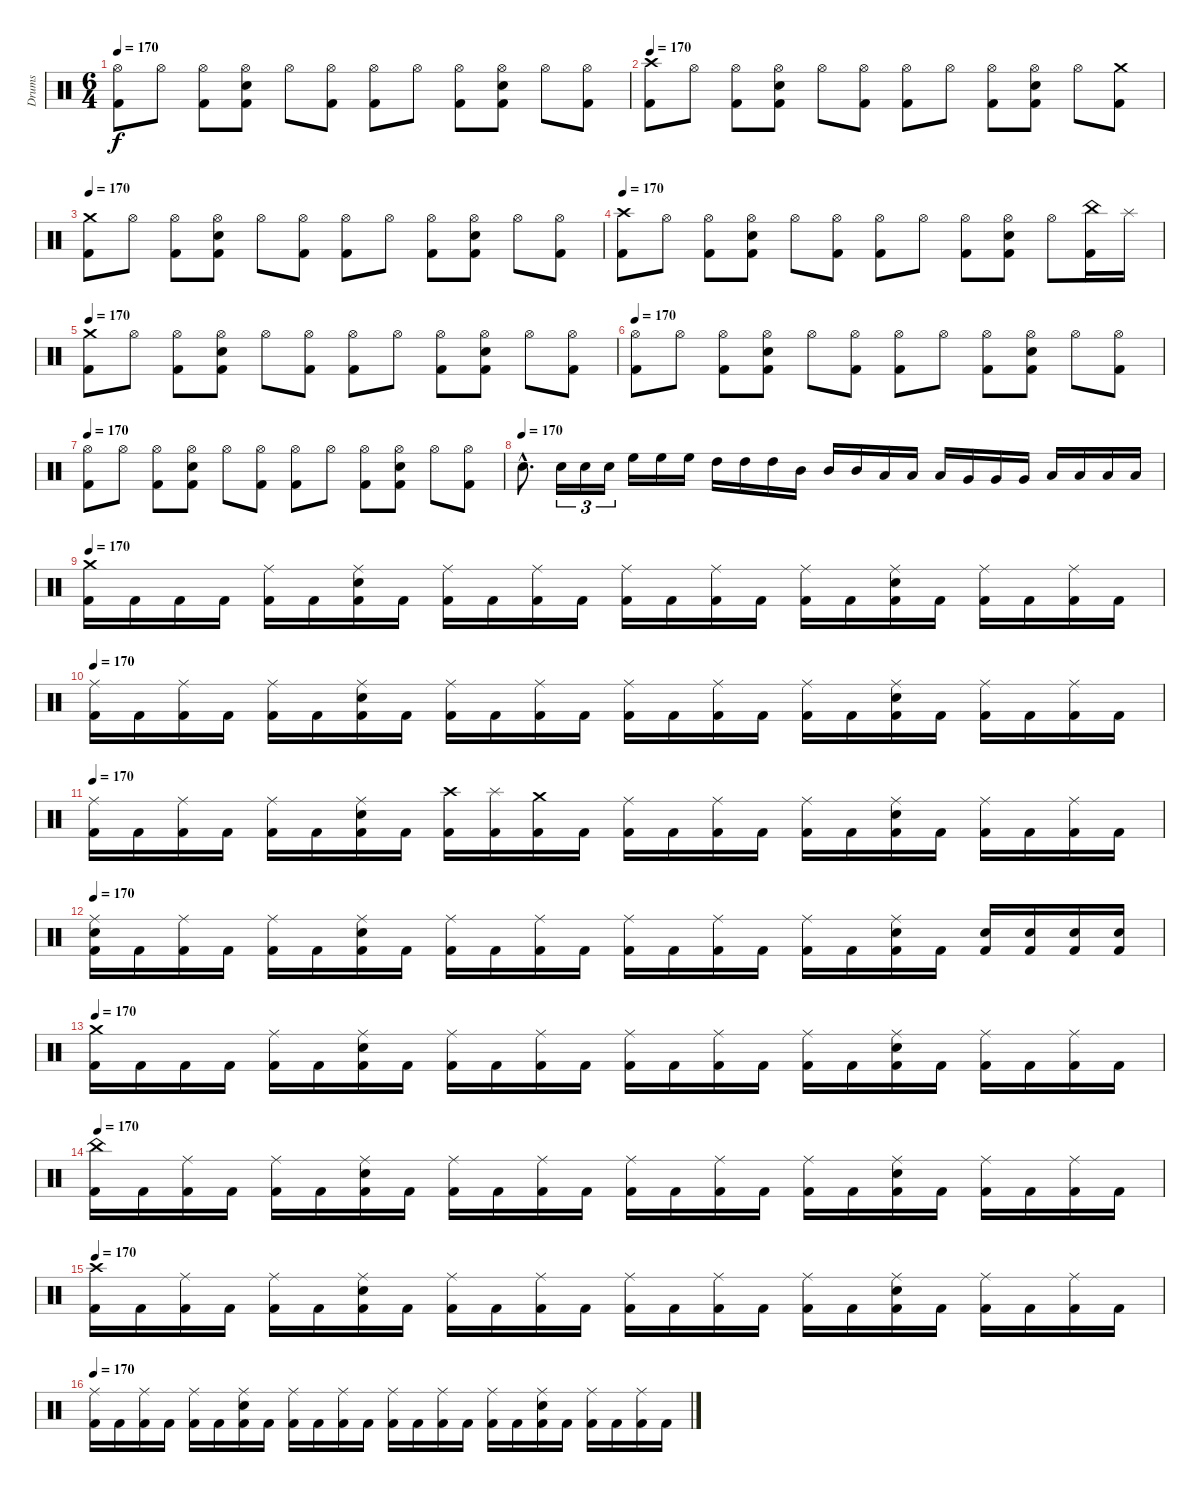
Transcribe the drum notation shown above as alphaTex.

\track ("Drums" "Drums") {instrument percussion}
\staff {score}
\articulation defaults
\ts (6 4)
\tempo 170
\clef neutral
\ks c
("Hi-Hat (open)" "Kick (hit) 2").8{dy f} "Hi-Hat (open)".8 ("Hi-Hat (open)" "Kick (hit) 2").8 ("Hi-Hat (open)" "Snare (hit) 2" "Kick (hit) 2").8 "Hi-Hat (open)".8 ("Hi-Hat (open)" "Kick (hit) 2").8 ("Hi-Hat (open)" "Kick (hit) 2").8 "Hi-Hat (open)".8 ("Hi-Hat (open)" "Kick (hit) 2").8 ("Hi-Hat (open)" "Snare (hit) 2" "Kick (hit) 2").8 "Hi-Hat (open)".8 ("Hi-Hat (open)" "Kick (hit) 2").8 |
\tempo 170
("Crash high (hit)" "Kick (hit) 2").8 "Hi-Hat (open)".8 ("Hi-Hat (open)" "Kick (hit) 2").8 ("Hi-Hat (open)" "Snare (hit) 2" "Kick (hit) 2").8 "Hi-Hat (open)".8 ("Hi-Hat (open)" "Kick (hit) 2").8 ("Hi-Hat (open)" "Kick (hit) 2").8 "Hi-Hat (open)".8 ("Hi-Hat (open)" "Kick (hit) 2").8 ("Hi-Hat (open)" "Snare (hit) 2" "Kick (hit) 2").8 "Hi-Hat (open)".8 ("Crash medium (hit)" "Kick (hit) 2").8 |
\tempo 170
("Crash medium (hit)" "Kick (hit) 2").8 "Hi-Hat (open)".8 ("Hi-Hat (open)" "Kick (hit) 2").8 ("Hi-Hat (open)" "Snare (hit) 2" "Kick (hit) 2").8 "Hi-Hat (open)".8 ("Hi-Hat (open)" "Kick (hit) 2").8 ("Hi-Hat (open)" "Kick (hit) 2").8 "Hi-Hat (open)".8 ("Hi-Hat (open)" "Kick (hit) 2").8 ("Hi-Hat (open)" "Snare (hit) 2" "Kick (hit) 2").8 "Hi-Hat (open)".8 ("Hi-Hat (open)" "Kick (hit) 2").8 |
\tempo 170
("Crash high (hit)" "Kick (hit) 2").8 "Hi-Hat (open)".8 ("Hi-Hat (open)" "Kick (hit) 2").8 ("Hi-Hat (open)" "Snare (hit) 2" "Kick (hit) 2").8 "Hi-Hat (open)".8 ("Hi-Hat (open)" "Kick (hit) 2").8 ("Hi-Hat (open)" "Kick (hit) 2").8 "Hi-Hat (open)".8 ("Hi-Hat (open)" "Kick (hit) 2").8 ("Hi-Hat (open)" "Snare (hit) 2" "Kick (hit) 2").8 "Hi-Hat (open)".8 ("China (hit)" "Kick (hit) 2").16 "Splash (hit)".16 |
\tempo 170
("Crash medium (hit)" "Kick (hit) 2").8 "Hi-Hat (open)".8 ("Hi-Hat (open)" "Kick (hit) 2").8 ("Hi-Hat (open)" "Snare (hit) 2" "Kick (hit) 2").8 "Hi-Hat (open)".8 ("Hi-Hat (open)" "Kick (hit) 2").8 ("Hi-Hat (open)" "Kick (hit) 2").8 "Hi-Hat (open)".8 ("Hi-Hat (open)" "Kick (hit) 2").8 ("Hi-Hat (open)" "Snare (hit) 2" "Kick (hit) 2").8 "Hi-Hat (open)".8 ("Hi-Hat (open)" "Kick (hit) 2").8 |
\tempo 170
("Hi-Hat (open)" "Kick (hit) 2").8 "Hi-Hat (open)".8 ("Hi-Hat (open)" "Kick (hit) 2").8 ("Hi-Hat (open)" "Snare (hit) 2" "Kick (hit) 2").8 "Hi-Hat (open)".8 ("Hi-Hat (open)" "Kick (hit) 2").8 ("Hi-Hat (open)" "Kick (hit) 2").8 "Hi-Hat (open)".8 ("Hi-Hat (open)" "Kick (hit) 2").8 ("Hi-Hat (open)" "Snare (hit) 2" "Kick (hit) 2").8 "Hi-Hat (open)".8 ("Hi-Hat (open)" "Kick (hit) 2").8 |
\tempo 170
("Hi-Hat (open)" "Kick (hit) 2").8 "Hi-Hat (open)".8 ("Hi-Hat (open)" "Kick (hit) 2").8 ("Hi-Hat (open)" "Snare (hit) 2" "Kick (hit) 2").8 "Hi-Hat (open)".8 ("Hi-Hat (open)" "Kick (hit) 2").8 ("Hi-Hat (open)" "Kick (hit) 2").8 "Hi-Hat (open)".8 ("Hi-Hat (open)" "Kick (hit) 2").8 ("Hi-Hat (open)" "Snare (hit) 2" "Kick (hit) 2").8 "Hi-Hat (open)".8 ("Hi-Hat (open)" "Kick (hit) 2").8 |
\tempo (170)
"Snare (hit) 2"{hac}.8{d} "Snare (hit) 2".16{tu (3 2)} "Snare (hit) 2".16{tu (3 2)} "Snare (hit) 2".16{tu (3 2)} "High Floor Tom (hit)".16 "High Floor Tom (hit)".16 "High Floor Tom (hit)".16 "High Tom (hit)".16 "High Tom (hit)".16 "High Tom (hit)".16 "Mid Tom (hit)".16 "Mid Tom (hit)".16 "Mid Tom (hit)".16 "Low Tom (hit)".16 "Low Tom (hit)".16 "Low Tom (hit)".16 "Very Low Tom (hit)".16 "Very Low Tom (hit)".16 "Very Low Tom (hit)".16 "Low Floor Tom (hit)".16 "Low Floor Tom (hit)".16 "Low Floor Tom (hit)".16 "Low Floor Tom (hit)".16 |
\tempo 170
("Crash medium (hit)" "Kick (hit) 2").16 "Kick (hit) 2".16 "Kick (hit) 2".16 "Kick (hit) 2".16 ("Ride (middle)" "Kick (hit) 2").16 "Kick (hit) 2".16 ("Ride (middle)" "Snare (hit) 2" "Kick (hit) 2").16 "Kick (hit) 2".16 ("Ride (middle)" "Kick (hit) 2").16 "Kick (hit) 2".16 ("Ride (middle)" "Kick (hit) 2").16 "Kick (hit) 2".16 ("Ride (middle)" "Kick (hit) 2").16 "Kick (hit) 2".16 ("Ride (middle)" "Kick (hit) 2").16 "Kick (hit) 2".16 ("Ride (middle)" "Kick (hit) 2").16 "Kick (hit) 2".16 ("Ride (middle)" "Snare (hit) 2" "Kick (hit) 2").16 "Kick (hit) 2".16 ("Ride (middle)" "Kick (hit) 2").16 "Kick (hit) 2".16 ("Ride (middle)" "Kick (hit) 2").16 "Kick (hit) 2".16 |
\tempo 170
("Ride (middle)" "Kick (hit) 2").16 "Kick (hit) 2".16 ("Ride (middle)" "Kick (hit) 2").16 "Kick (hit) 2".16 ("Ride (middle)" "Kick (hit) 2").16 "Kick (hit) 2".16 ("Ride (middle)" "Snare (hit) 2" "Kick (hit) 2").16 "Kick (hit) 2".16 ("Ride (middle)" "Kick (hit) 2").16 "Kick (hit) 2".16 ("Ride (middle)" "Kick (hit) 2").16 "Kick (hit) 2".16 ("Ride (middle)" "Kick (hit) 2").16 "Kick (hit) 2".16 ("Ride (middle)" "Kick (hit) 2").16 "Kick (hit) 2".16 ("Ride (middle)" "Kick (hit) 2").16 "Kick (hit) 2".16 ("Ride (middle)" "Snare (hit) 2" "Kick (hit) 2").16 "Kick (hit) 2".16 ("Ride (middle)" "Kick (hit) 2").16 "Kick (hit) 2".16 ("Ride (middle)" "Kick (hit) 2").16 "Kick (hit) 2".16 |
\tempo 170
("Ride (middle)" "Kick (hit) 2").16 "Kick (hit) 2".16 ("Ride (middle)" "Kick (hit) 2").16 "Kick (hit) 2".16 ("Ride (middle)" "Kick (hit) 2").16 "Kick (hit) 2".16 ("Ride (middle)" "Snare (hit) 2" "Kick (hit) 2").16 "Kick (hit) 2".16 ("Crash high (hit)" "Kick (hit) 2").16 ("Splash (hit)" "Kick (hit) 2").16 ("Crash medium (hit)" "Kick (hit) 2").16 "Kick (hit) 2".16 ("Ride (middle)" "Kick (hit) 2").16 "Kick (hit) 2".16 ("Ride (middle)" "Kick (hit) 2").16 "Kick (hit) 2".16 ("Ride (middle)" "Kick (hit) 2").16 "Kick (hit) 2".16 ("Ride (middle)" "Snare (hit) 2" "Kick (hit) 2").16 "Kick (hit) 2".16 ("Ride (middle)" "Kick (hit) 2").16 "Kick (hit) 2".16 ("Ride (middle)" "Kick (hit) 2").16 "Kick (hit) 2".16 |
\tempo 170
("Ride (middle)" "Snare (hit) 2" "Kick (hit) 2").16 "Kick (hit) 2".16 ("Ride (middle)" "Kick (hit) 2").16 "Kick (hit) 2".16 ("Ride (middle)" "Kick (hit) 2").16 "Kick (hit) 2".16 ("Ride (middle)" "Snare (hit) 2" "Kick (hit) 2").16 "Kick (hit) 2".16 ("Ride (middle)" "Kick (hit) 2").16 "Kick (hit) 2".16 ("Ride (middle)" "Kick (hit) 2").16 "Kick (hit) 2".16 ("Ride (middle)" "Kick (hit) 2").16 "Kick (hit) 2".16 ("Ride (middle)" "Kick (hit) 2").16 "Kick (hit) 2".16 ("Ride (middle)" "Kick (hit) 2").16 "Kick (hit) 2".16 ("Ride (middle)" "Snare (hit) 2" "Kick (hit) 2").16 "Kick (hit) 2".16 ("Snare (hit) 2" "Kick (hit) 2").16 ("Snare (hit) 2" "Kick (hit) 2").16 ("Snare (hit) 2" "Kick (hit) 2").16 ("Snare (hit) 2" "Kick (hit) 2").16 |
\tempo 170
("Crash medium (hit)" "Kick (hit) 2").16 "Kick (hit) 2".16 "Kick (hit) 2".16 "Kick (hit) 2".16 ("Ride (middle)" "Kick (hit) 2").16 "Kick (hit) 2".16 ("Ride (middle)" "Snare (hit) 2" "Kick (hit) 2").16 "Kick (hit) 2".16 ("Ride (middle)" "Kick (hit) 2").16 "Kick (hit) 2".16 ("Ride (middle)" "Kick (hit) 2").16 "Kick (hit) 2".16 ("Ride (middle)" "Kick (hit) 2").16 "Kick (hit) 2".16 ("Ride (middle)" "Kick (hit) 2").16 "Kick (hit) 2".16 ("Ride (middle)" "Kick (hit) 2").16 "Kick (hit) 2".16 ("Ride (middle)" "Snare (hit) 2" "Kick (hit) 2").16 "Kick (hit) 2".16 ("Ride (middle)" "Kick (hit) 2").16 "Kick (hit) 2".16 ("Ride (middle)" "Kick (hit) 2").16 "Kick (hit) 2".16 |
\tempo 170
("China (hit)" "Kick (hit) 2").16 "Kick (hit) 2".16 ("Ride (middle)" "Kick (hit) 2").16 "Kick (hit) 2".16 ("Ride (middle)" "Kick (hit) 2").16 "Kick (hit) 2".16 ("Ride (middle)" "Snare (hit) 2" "Kick (hit) 2").16 "Kick (hit) 2".16 ("Ride (middle)" "Kick (hit) 2").16 "Kick (hit) 2".16 ("Ride (middle)" "Kick (hit) 2").16 "Kick (hit) 2".16 ("Ride (middle)" "Kick (hit) 2").16 "Kick (hit) 2".16 ("Ride (middle)" "Kick (hit) 2").16 "Kick (hit) 2".16 ("Ride (middle)" "Kick (hit) 2").16 "Kick (hit) 2".16 ("Ride (middle)" "Snare (hit) 2" "Kick (hit) 2").16 "Kick (hit) 2".16 ("Ride (middle)" "Kick (hit) 2").16 "Kick (hit) 2".16 ("Ride (middle)" "Kick (hit) 2").16 "Kick (hit) 2".16 |
\tempo 170
("Crash high (hit)" "Kick (hit) 2").16 "Kick (hit) 2".16 ("Ride (middle)" "Kick (hit) 2").16 "Kick (hit) 2".16 ("Ride (middle)" "Kick (hit) 2").16 "Kick (hit) 2".16 ("Ride (middle)" "Snare (hit) 2" "Kick (hit) 2").16 "Kick (hit) 2".16 ("Ride (middle)" "Kick (hit) 2").16 "Kick (hit) 2".16 ("Ride (middle)" "Kick (hit) 2").16 "Kick (hit) 2".16 ("Ride (middle)" "Kick (hit) 2").16 "Kick (hit) 2".16 ("Ride (middle)" "Kick (hit) 2").16 "Kick (hit) 2".16 ("Ride (middle)" "Kick (hit) 2").16 "Kick (hit) 2".16 ("Ride (middle)" "Snare (hit) 2" "Kick (hit) 2").16 "Kick (hit) 2".16 ("Ride (middle)" "Kick (hit) 2").16 "Kick (hit) 2".16 ("Ride (middle)" "Kick (hit) 2").16 "Kick (hit) 2".16 |
\tempo 170
("Ride (middle)" "Kick (hit) 2").16 "Kick (hit) 2".16 ("Ride (middle)" "Kick (hit) 2").16 "Kick (hit) 2".16 ("Ride (middle)" "Kick (hit) 2").16 "Kick (hit) 2".16 ("Ride (middle)" "Snare (hit) 2" "Kick (hit) 2").16 "Kick (hit) 2".16 ("Ride (middle)" "Kick (hit) 2").16 "Kick (hit) 2".16 ("Ride (middle)" "Kick (hit) 2").16 "Kick (hit) 2".16 ("Ride (middle)" "Kick (hit) 2").16 "Kick (hit) 2".16 ("Ride (middle)" "Kick (hit) 2").16 "Kick (hit) 2".16 ("Ride (middle)" "Kick (hit) 2").16 "Kick (hit) 2".16 ("Ride (middle)" "Snare (hit) 2" "Kick (hit) 2").16 "Kick (hit) 2".16 ("Ride (middle)" "Kick (hit) 2").16 "Kick (hit) 2".16 ("Ride (middle)" "Kick (hit) 2").16 "Kick (hit) 2".16
